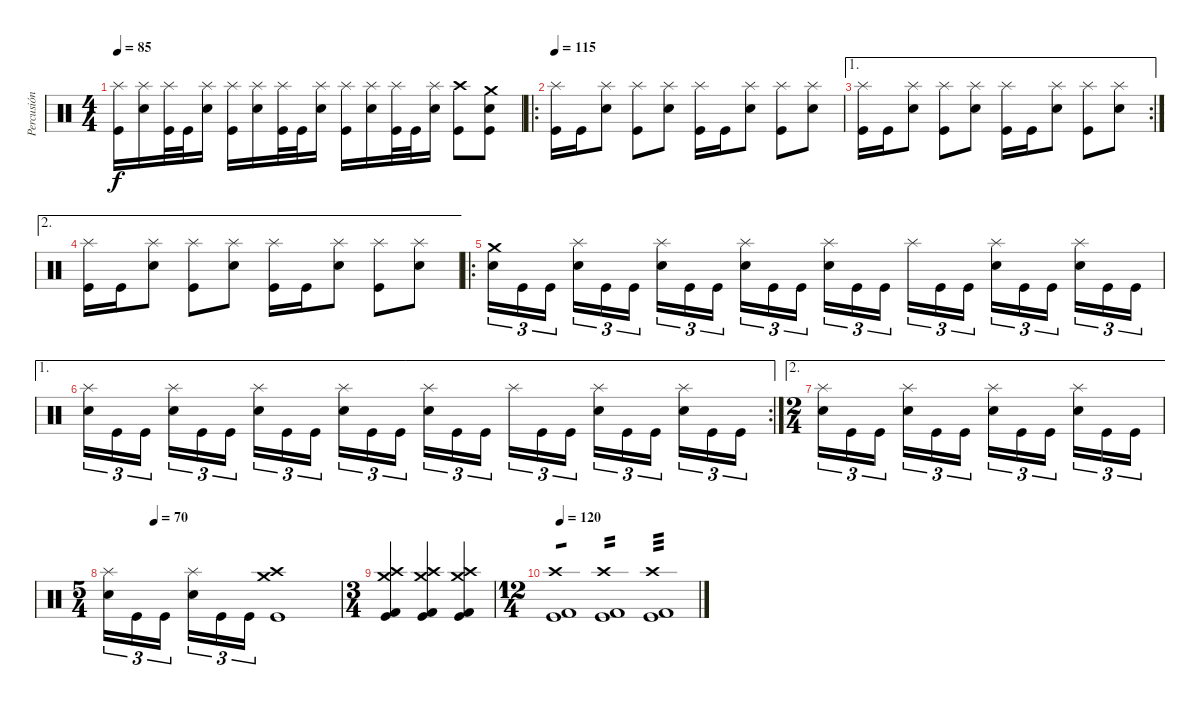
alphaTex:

\track ("Percusión" "Percusión") {instrument percussion}
\staff {score}
\articulation defaults
\ts (4 4)
\tempo 85
\clef neutral
\ks c
("Splash (hit)" "Kick (hit)").16{dy f} ("Electric Snare (hit)" "Splash (hit)").16 ("Splash (hit)" "Kick (hit)").32 "Kick (hit)".32 ("Electric Snare (hit)" "Splash (hit)").16 ("Splash (hit)" "Kick (hit)").16 ("Electric Snare (hit)" "Splash (hit)").16 ("Splash (hit)" "Kick (hit)").32 "Kick (hit)".32 ("Electric Snare (hit)" "Splash (hit)").16 ("Splash (hit)" "Kick (hit)").16 ("Electric Snare (hit)" "Splash (hit)").16 ("Splash (hit)" "Kick (hit)").32 "Kick (hit)".32 ("Electric Snare (hit)" "Splash (hit)").16 ("Crash high (hit)" "Kick (hit)").8 ("Crash medium (hit)" "Electric Snare (hit)" "Kick (hit)").8 |
\ro
\tempo 115
("Splash (hit)" "Kick (hit)").16 "Kick (hit)".16 ("Electric Snare (hit)" "Splash (hit)").8 ("Splash (hit)" "Kick (hit)").8 ("Electric Snare (hit)" "Splash (hit)").8 ("Splash (hit)" "Kick (hit)").16 "Kick (hit)".16 ("Electric Snare (hit)" "Splash (hit)").8 ("Splash (hit)" "Kick (hit)").8 ("Electric Snare (hit)" "Splash (hit)").8 |
\ae 1
\rc 2
("Splash (hit)" "Kick (hit)").16 "Kick (hit)".16 ("Electric Snare (hit)" "Splash (hit)").8 ("Splash (hit)" "Kick (hit)").8 ("Electric Snare (hit)" "Splash (hit)").8 ("Splash (hit)" "Kick (hit)").16 "Kick (hit)".16 ("Electric Snare (hit)" "Splash (hit)").8 ("Splash (hit)" "Kick (hit)").8 ("Electric Snare (hit)" "Splash (hit)").8 |
\ae 2
("Splash (hit)" "Kick (hit)").16 "Kick (hit)".16 ("Electric Snare (hit)" "Splash (hit)").8 ("Splash (hit)" "Kick (hit)").8 ("Electric Snare (hit)" "Splash (hit)").8 ("Splash (hit)" "Kick (hit)").16 "Kick (hit)".16 ("Electric Snare (hit)" "Splash (hit)").8 ("Splash (hit)" "Kick (hit)").8 ("Electric Snare (hit)" "Splash (hit)").8 |
\ro
("Crash medium (hit)" "Electric Snare (hit)").16{tu (3 2)} "Kick (hit)".16{tu (3 2)} "Kick (hit)".16{tu (3 2) beam splitsecondary} ("Electric Snare (hit)" "Splash (hit)").16{tu (3 2)} "Kick (hit)".16{tu (3 2)} "Kick (hit)".16{tu (3 2)} ("Electric Snare (hit)" "Splash (hit)").16{tu (3 2)} "Kick (hit)".16{tu (3 2)} "Kick (hit)".16{tu (3 2) beam splitsecondary} ("Electric Snare (hit)" "Splash (hit)").16{tu (3 2)} "Kick (hit)".16{tu (3 2)} "Kick (hit)".16{tu (3 2)} ("Electric Snare (hit)" "Splash (hit)").16{tu (3 2)} "Kick (hit)".16{tu (3 2)} "Kick (hit)".16{tu (3 2) beam splitsecondary} "Splash (hit)".16{tu (3 2)} "Kick (hit)".16{tu (3 2)} "Kick (hit)".16{tu (3 2)} ("Electric Snare (hit)" "Splash (hit)").16{tu (3 2)} "Kick (hit)".16{tu (3 2)} "Kick (hit)".16{tu (3 2) beam splitsecondary} ("Electric Snare (hit)" "Splash (hit)").16{tu (3 2)} "Kick (hit)".16{tu (3 2)} "Kick (hit)".16{tu (3 2)} |
\ae 1
\rc 2
("Electric Snare (hit)" "Splash (hit)").16{tu (3 2)} "Kick (hit)".16{tu (3 2)} "Kick (hit)".16{tu (3 2) beam splitsecondary} ("Electric Snare (hit)" "Splash (hit)").16{tu (3 2)} "Kick (hit)".16{tu (3 2)} "Kick (hit)".16{tu (3 2)} ("Electric Snare (hit)" "Splash (hit)").16{tu (3 2)} "Kick (hit)".16{tu (3 2)} "Kick (hit)".16{tu (3 2) beam splitsecondary} ("Electric Snare (hit)" "Splash (hit)").16{tu (3 2)} "Kick (hit)".16{tu (3 2)} "Kick (hit)".16{tu (3 2)} ("Electric Snare (hit)" "Splash (hit)").16{tu (3 2)} "Kick (hit)".16{tu (3 2)} "Kick (hit)".16{tu (3 2) beam splitsecondary} "Splash (hit)".16{tu (3 2)} "Kick (hit)".16{tu (3 2)} "Kick (hit)".16{tu (3 2)} ("Electric Snare (hit)" "Splash (hit)").16{tu (3 2)} "Kick (hit)".16{tu (3 2)} "Kick (hit)".16{tu (3 2) beam splitsecondary} ("Electric Snare (hit)" "Splash (hit)").16{tu (3 2)} "Kick (hit)".16{tu (3 2)} "Kick (hit)".16{tu (3 2)} |
\ae 2
\ts (2 4)
("Electric Snare (hit)" "Splash (hit)").16{tu (3 2)} "Kick (hit)".16{tu (3 2)} "Kick (hit)".16{tu (3 2) beam splitsecondary} ("Electric Snare (hit)" "Splash (hit)").16{tu (3 2)} "Kick (hit)".16{tu (3 2)} "Kick (hit)".16{tu (3 2)} ("Electric Snare (hit)" "Splash (hit)").16{tu (3 2)} "Kick (hit)".16{tu (3 2)} "Kick (hit)".16{tu (3 2) beam splitsecondary} ("Electric Snare (hit)" "Splash (hit)").16{tu (3 2)} "Kick (hit)".16{tu (3 2)} "Kick (hit)".16{tu (3 2)} |
\ts (5 4)
\tempo (70 0.2)
("Electric Snare (hit)" "Splash (hit)").16{tu (3 2)} "Kick (hit)".16{tu (3 2)} "Kick (hit)".16{tu (3 2) beam splitsecondary} ("Electric Snare (hit)" "Splash (hit)").16{tu (3 2)} "Kick (hit)".16{tu (3 2)} "Kick (hit)".16{tu (3 2)} ("Crash high (hit)" "Crash medium (hit)" "Kick (hit)").1 |
\ts (3 4)
("Kick (hit) 2" "Crash high (hit)" "Crash medium (hit)" "Kick (hit)").4 ("Kick (hit) 2" "Crash high (hit)" "Crash medium (hit)" "Kick (hit)").4 ("Kick (hit) 2" "Crash high (hit)" "Crash medium (hit)" "Kick (hit)").4 |
\ts (12 4)
\tempo 120
("Kick (hit) 2" "Crash high (hit)" "Kick (hit)").1{tp 1} ("Kick (hit) 2" "Crash high (hit)" "Kick (hit)").1{tp 2} ("Kick (hit) 2" "Crash high (hit)" "Kick (hit)").1{tp 3}
